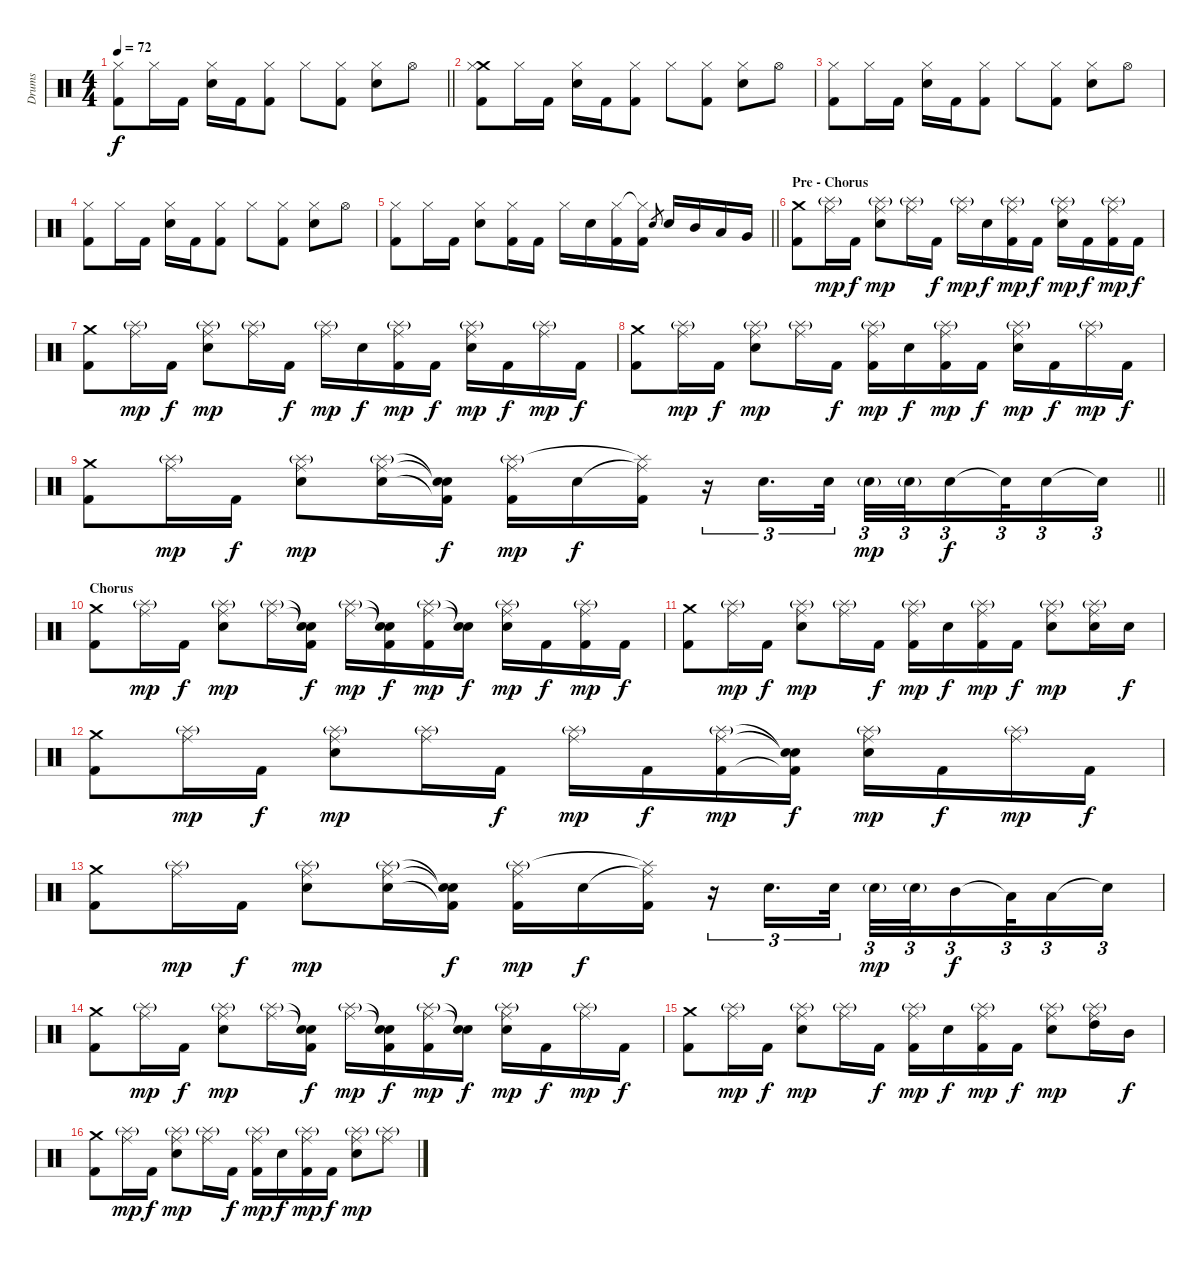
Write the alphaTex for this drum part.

\track ("Drums" "Drums") {instrument percussion}
\staff {score}
\articulation defaults
\ts (4 4)
\tempo 72
\clef neutral
\barLineRight lightlight
\ks c
("Hi-Hat (closed)" "Kick (hit) 2").8{dy f} "Hi-Hat (closed)".16 "Kick (hit) 2".16 ("Hi-Hat (closed)" "Electric Snare (hit)").16 "Kick (hit) 2".16 ("Hi-Hat (closed)" "Kick (hit) 2").8 "Hi-Hat (closed)".8 ("Hi-Hat (closed)" "Kick (hit) 2").8 ("Hi-Hat (closed)" "Electric Snare (hit)").8 "Hi-Hat (open)".8 |
("Crash medium (hit)" "Hi-Hat (closed)" "Kick (hit) 2").8 "Hi-Hat (closed)".16 "Kick (hit) 2".16 ("Hi-Hat (closed)" "Electric Snare (hit)").16 "Kick (hit) 2".16 ("Hi-Hat (closed)" "Kick (hit) 2").8 "Hi-Hat (closed)".8 ("Hi-Hat (closed)" "Kick (hit) 2").8 ("Hi-Hat (closed)" "Electric Snare (hit)").8 "Hi-Hat (open)".8 |
("Hi-Hat (closed)" "Kick (hit) 2").8 "Hi-Hat (closed)".16 "Kick (hit) 2".16 ("Hi-Hat (closed)" "Electric Snare (hit)").16 "Kick (hit) 2".16 ("Hi-Hat (closed)" "Kick (hit) 2").8 "Hi-Hat (closed)".8 ("Hi-Hat (closed)" "Kick (hit) 2").8 ("Hi-Hat (closed)" "Electric Snare (hit)").8 "Hi-Hat (open)".8 |
("Hi-Hat (closed)" "Kick (hit) 2").8 "Hi-Hat (closed)".16 "Kick (hit) 2".16 ("Hi-Hat (closed)" "Electric Snare (hit)").16 "Kick (hit) 2".16 ("Hi-Hat (closed)" "Kick (hit) 2").8 "Hi-Hat (closed)".8 ("Hi-Hat (closed)" "Kick (hit) 2").8 ("Hi-Hat (closed)" "Electric Snare (hit)").8 "Hi-Hat (open)".8 |
\barLineRight lightlight
("Hi-Hat (closed)" "Kick (hit) 2").8 "Hi-Hat (closed)".16 "Kick (hit) 2".16 ("Hi-Hat (closed)" "Electric Snare (hit)").8 ("Hi-Hat (closed)" "Kick (hit) 2").16 "Kick (hit) 2".16 "Hi-Hat (closed)".16 "Electric Snare (hit)".16 ("Hi-Hat (closed)" "Kick (hit) 2").16 ("Hi-Hat (closed)"{t} "Kick (hit) 2").16 "Electric Snare (hit)"{h}.8{gr} "Electric Snare (hit)".16 "Mid Tom (hit)".16 "Low Tom (hit)".16 "Very Low Tom (hit)".16 |
\section ("" "Pre - Chorus")
("Crash medium (hit)" "Kick (hit) 2").8 ("Ride (middle)" "Splash (hit)"{g}).16{dy mp} "Kick (hit) 2".16{dy f} ("Ride (middle)" "Splash (hit)"{g} "Electric Snare (hit)").8{dy mp} ("Ride (middle)" "Splash (hit)"{g}).16 "Kick (hit) 2".16{dy f} ("Ride (middle)" "Splash (hit)"{g}).16{dy mp} "Electric Snare (hit)".16{dy f} ("Ride (middle)" "Splash (hit)"{g} "Kick (hit) 2").16{dy mp} "Kick (hit) 2".16{dy f} ("Ride (middle)" "Splash (hit)"{g} "Electric Snare (hit)").16{dy mp} "Kick (hit) 2".16{dy f} ("Ride (middle)" "Splash (hit)"{g} "Kick (hit) 2").16{dy mp} "Kick (hit) 2".16{dy f} |
("Crash medium (hit)" "Kick (hit) 2").8 ("Ride (middle)" "Splash (hit)"{g}).16{dy mp} "Kick (hit) 2".16{dy f} ("Ride (middle)" "Splash (hit)"{g} "Electric Snare (hit)").8{dy mp} ("Ride (middle)" "Splash (hit)"{g}).16 "Kick (hit) 2".16{dy f} ("Ride (middle)" "Splash (hit)"{g}).16{dy mp} "Electric Snare (hit)".16{dy f} ("Ride (middle)" "Splash (hit)"{g} "Kick (hit) 2").16{dy mp} "Kick (hit) 2".16{dy f} ("Ride (middle)" "Splash (hit)"{g} "Electric Snare (hit)").16{dy mp} "Kick (hit) 2".16{dy f} ("Ride (middle)" "Splash (hit)"{g}).16{dy mp} "Kick (hit) 2".16{dy f} |
("Crash medium (hit)" "Kick (hit) 2").8 ("Ride (middle)" "Splash (hit)"{g}).16{dy mp} "Kick (hit) 2".16{dy f} ("Ride (middle)" "Splash (hit)"{g} "Electric Snare (hit)").8{dy mp} ("Ride (middle)" "Splash (hit)"{g}).16 "Kick (hit) 2".16{dy f} ("Ride (middle)" "Splash (hit)"{g} "Kick (hit) 2").16{dy mp} "Electric Snare (hit)".16{dy f} ("Ride (middle)" "Splash (hit)"{g} "Kick (hit) 2").16{dy mp} "Kick (hit) 2".16{dy f} ("Ride (middle)" "Splash (hit)"{g} "Electric Snare (hit)").16{dy mp} "Kick (hit) 2".16{dy f} ("Ride (middle)" "Splash (hit)"{g}).16{dy mp} "Kick (hit) 2".16{dy f} |
\barLineRight lightlight
("Crash medium (hit)" "Kick (hit) 2").8 ("Ride (middle)" "Splash (hit)"{g}).16{dy mp} "Kick (hit) 2".16{dy f} ("Ride (middle)" "Splash (hit)"{g} "Electric Snare (hit)").8{dy mp} ("Ride (middle)" "Splash (hit)"{g} "Electric Snare (hit)").16 ("Snare (hit)"{t} "Snare (hit)"{t} "Kick (hit) 2"{t}).16{dy f} ("Ride (middle)" "Splash (hit)"{g} "Kick (hit) 2").16{dy mp} "Electric Snare (hit)".16{dy f} ("Ride (middle)"{t} "Splash (hit)"{t} "Kick (hit) 2").16 r.16{tu (3 2)} "Electric Snare (hit)".16{d tu (3 2)} "Electric Snare (hit)".32{tu (3 2)} "Electric Snare (hit)"{g}.32{tu (3 2) dy mp} "Electric Snare (hit)"{g}.32{tu (3 2) beam splitsecondary} "Electric Snare (hit)".16{tu (3 2) dy f} "Snare (hit)"{t}.32{tu (3 2) beam splitsecondary} "Electric Snare (hit)".16{tu (3 2)} "Electric Snare (hit)"{t}.16{tu (3 2)} |
\section ("" "Chorus")
("Crash medium (hit)" "Kick (hit) 2").8 ("Ride (middle)" "Splash (hit)"{g}).16{dy mp} "Kick (hit) 2".16{dy f} ("Ride (middle)" "Splash (hit)"{g} "Electric Snare (hit)").8{dy mp} ("Ride (middle)" "Splash (hit)"{g}).16 ("Snare (hit)"{t} "Snare (hit)"{t} "Kick (hit) 2").16{dy f} ("Ride (middle)" "Splash (hit)"{g}).16{dy mp} ("Snare (hit)"{t} "Snare (hit)"{t} "Kick (hit) 2").16{dy f} ("Ride (middle)" "Splash (hit)"{g} "Kick (hit) 2").16{dy mp} ("Snare (hit)"{t} "Snare (hit)"{t}).16{dy f} ("Ride (middle)" "Splash (hit)"{g} "Electric Snare (hit)").16{dy mp} "Kick (hit) 2".16{dy f} ("Ride (middle)" "Splash (hit)"{g} "Kick (hit) 2").16{dy mp} "Kick (hit) 2".16{dy f} |
("Crash medium (hit)" "Kick (hit) 2").8 ("Ride (middle)" "Splash (hit)"{g}).16{dy mp} "Kick (hit) 2".16{dy f} ("Ride (middle)" "Splash (hit)"{g} "Electric Snare (hit)").8{dy mp} ("Ride (middle)" "Splash (hit)"{g}).16 "Kick (hit) 2".16{dy f} ("Ride (middle)" "Splash (hit)"{g} "Kick (hit) 2").16{dy mp} "Electric Snare (hit)".16{dy f} ("Ride (middle)" "Splash (hit)"{g} "Kick (hit) 2").16{dy mp} "Kick (hit) 2".16{dy f} ("Ride (middle)" "Splash (hit)"{g} "Electric Snare (hit)").8{dy mp} ("Ride (middle)" "Splash (hit)"{g} "Electric Snare (hit)").16 "Electric Snare (hit)".16{dy f} |
("Crash medium (hit)" "Kick (hit) 2").8 ("Ride (middle)" "Splash (hit)"{g}).16{dy mp} "Kick (hit) 2".16{dy f} ("Ride (middle)" "Splash (hit)"{g} "Electric Snare (hit)").8{dy mp} ("Ride (middle)" "Splash (hit)"{g}).16 "Kick (hit) 2".16{dy f} ("Ride (middle)" "Splash (hit)"{g}).16{dy mp} "Kick (hit) 2".16{dy f} ("Ride (middle)" "Splash (hit)"{g} "Kick (hit) 2").16{dy mp} ("Snare (hit)"{t} "Snare (hit)"{t} "Kick (hit) 2"{t}).16{dy f} ("Ride (middle)" "Splash (hit)"{g} "Electric Snare (hit)").16{dy mp} "Kick (hit) 2".16{dy f} ("Ride (middle)" "Splash (hit)"{g}).16{dy mp} "Kick (hit) 2".16{dy f} |
("Crash medium (hit)" "Kick (hit) 2").8 ("Ride (middle)" "Splash (hit)"{g}).16{dy mp} "Kick (hit) 2".16{dy f} ("Ride (middle)" "Splash (hit)"{g} "Electric Snare (hit)").8{dy mp} ("Ride (middle)" "Splash (hit)"{g} "Electric Snare (hit)").16 ("Snare (hit)"{t} "Snare (hit)"{t} "Kick (hit) 2"{t}).16{dy f} ("Ride (middle)" "Splash (hit)"{g} "Kick (hit) 2").16{dy mp} "Electric Snare (hit)".16{dy f} ("Ride (middle)"{t} "Splash (hit)"{t} "Kick (hit) 2").16 r.16{tu (3 2)} "Electric Snare (hit)".16{d tu (3 2)} "Electric Snare (hit)".32{tu (3 2)} "Electric Snare (hit)"{g}.32{tu (3 2) dy mp} "Electric Snare (hit)"{g}.32{tu (3 2) beam splitsecondary} "Mid Tom (hit)".16{tu (3 2) dy f} "Low Tom (hit)"{t}.32{tu (3 2) beam splitsecondary} "Low Tom (hit)".16{tu (3 2)} "Electric Snare (hit)"{t}.16{tu (3 2)} |
("Crash medium (hit)" "Kick (hit) 2").8 ("Ride (middle)" "Splash (hit)"{g}).16{dy mp} "Kick (hit) 2".16{dy f} ("Ride (middle)" "Splash (hit)"{g} "Electric Snare (hit)").8{dy mp} ("Ride (middle)" "Splash (hit)"{g}).16 ("Snare (hit)"{t} "Snare (hit)"{t} "Kick (hit) 2").16{dy f} ("Ride (middle)" "Splash (hit)"{g}).16{dy mp} ("Snare (hit)"{t} "Snare (hit)"{t} "Kick (hit) 2").16{dy f} ("Ride (middle)" "Splash (hit)"{g} "Kick (hit) 2").16{dy mp} ("Snare (hit)"{t} "Snare (hit)"{t}).16{dy f} ("Ride (middle)" "Splash (hit)"{g} "Electric Snare (hit)").16{dy mp} "Kick (hit) 2".16{dy f} ("Ride (middle)" "Splash (hit)"{g}).16{dy mp} "Kick (hit) 2".16{dy f} |
("Crash medium (hit)" "Kick (hit) 2").8 ("Ride (middle)" "Splash (hit)"{g}).16{dy mp} "Kick (hit) 2".16{dy f} ("Ride (middle)" "Splash (hit)"{g} "Electric Snare (hit)").8{dy mp} ("Ride (middle)" "Splash (hit)"{g}).16 "Kick (hit) 2".16{dy f} ("Ride (middle)" "Splash (hit)"{g} "Kick (hit) 2").16{dy mp} "Electric Snare (hit)".16{dy f} ("Ride (middle)" "Splash (hit)"{g} "Kick (hit) 2").16{dy mp} "Kick (hit) 2".16{dy f} ("Ride (middle)" "Splash (hit)"{g} "Electric Snare (hit)").8{dy mp} ("Ride (middle)" "Splash (hit)"{g} "High Tom (hit)").16 "Mid Tom (hit)".16{dy f} |
("Crash medium (hit)" "Kick (hit) 2").8 ("Ride (middle)" "Splash (hit)"{g}).16{dy mp} "Kick (hit) 2".16{dy f} ("Ride (middle)" "Splash (hit)"{g} "Electric Snare (hit)").8{dy mp} ("Ride (middle)" "Splash (hit)"{g}).16 "Kick (hit) 2".16{dy f} ("Ride (middle)" "Splash (hit)"{g} "Kick (hit) 2").16{dy mp} "Electric Snare (hit)".16{dy f} ("Ride (middle)" "Splash (hit)"{g} "Kick (hit) 2").16{dy mp} "Kick (hit) 2".16{dy f} ("Ride (middle)" "Splash (hit)"{g} "Electric Snare (hit)").8{dy mp} ("Ride (middle)" "Splash (hit)"{g}).8
